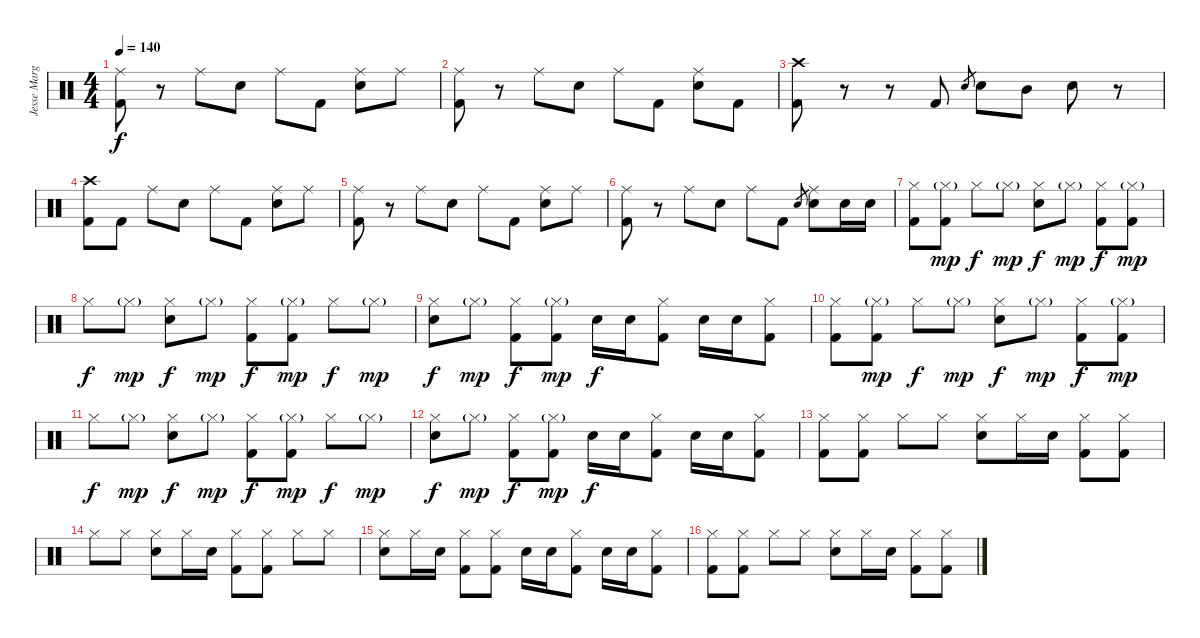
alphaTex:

\track ("Jesse Margera" "Jesse Marg") {instrument percussion}
\staff {score}
\articulation defaults
\ts (4 4)
\tempo 140
\clef neutral
\ks c
("Ride (middle)" "Kick (hit) 2").8{dy f} r.8 "Ride (middle)".8 "Electric Snare (hit)".8 "Ride (middle)".8 "Kick (hit) 2".8 ("Ride (middle)" "Electric Snare (hit)").8 "Ride (middle)".8 |
("Ride (middle)" "Kick (hit) 2").8 r.8 "Ride (middle)".8 "Electric Snare (hit)".8 "Ride (middle)".8 "Kick (hit) 2".8 ("Ride (middle)" "Electric Snare (hit)").8 "Kick (hit) 2".8 |
("Crash high (hit)" "Kick (hit) 2").8 r.8 r.8 "Kick (hit) 2".8 "Electric Snare (hit)".8{gr} "Electric Snare (hit)".8 "Mid Tom (hit)".8 "Electric Snare (hit)".8 r.8 |
("Crash high (hit)" "Kick (hit) 2").8 "Kick (hit) 2".8 "Ride (middle)".8 "Electric Snare (hit)".8 "Ride (middle)".8 "Kick (hit) 2".8 ("Ride (middle)" "Electric Snare (hit)").8 "Ride (middle)".8 |
("Ride (middle)" "Kick (hit) 2").8 r.8 "Ride (middle)".8 "Electric Snare (hit)".8 "Ride (middle)".8 "Kick (hit) 2".8 ("Ride (middle)" "Electric Snare (hit)").8 "Ride (middle)".8 |
("Ride (middle)" "Kick (hit) 2").8 r.8 "Ride (middle)".8 "Electric Snare (hit)".8 "Ride (middle)".8 "Kick (hit) 2".8 "Electric Snare (hit)".8{gr} ("Ride (middle)" "Electric Snare (hit)").8 "Electric Snare (hit)".16 "Electric Snare (hit)".16 |
("Hi-Hat (closed)" "Kick (hit) 2").8 ("Hi-Hat (closed)"{g} "Kick (hit) 2").8{dy mp} "Hi-Hat (closed)".8{dy f} "Hi-Hat (closed)"{g}.8{dy mp} ("Hi-Hat (closed)" "Electric Snare (hit)").8{dy f} "Hi-Hat (closed)"{g}.8{dy mp} ("Hi-Hat (closed)" "Kick (hit) 2").8{dy f} ("Hi-Hat (closed)"{g} "Kick (hit) 2").8{dy mp} |
"Hi-Hat (closed)".8{dy f} "Hi-Hat (closed)"{g}.8{dy mp} ("Hi-Hat (closed)" "Electric Snare (hit)").8{dy f} "Hi-Hat (closed)"{g}.8{dy mp} ("Hi-Hat (closed)" "Kick (hit) 2").8{dy f} ("Hi-Hat (closed)"{g} "Kick (hit) 2").8{dy mp} "Hi-Hat (closed)".8{dy f} "Hi-Hat (closed)"{g}.8{dy mp} |
("Hi-Hat (closed)" "Electric Snare (hit)").8{dy f} "Hi-Hat (closed)"{g}.8{dy mp} ("Hi-Hat (closed)" "Kick (hit) 2").8{dy f} ("Hi-Hat (closed)"{g} "Kick (hit) 2").8{dy mp} "Electric Snare (hit)".16{dy f} "Electric Snare (hit)".16 ("Hi-Hat (closed)" "Kick (hit) 2").8 "Electric Snare (hit)".16 "Electric Snare (hit)".16 ("Hi-Hat (closed)" "Kick (hit) 2").8 |
("Hi-Hat (closed)" "Kick (hit) 2").8 ("Hi-Hat (closed)"{g} "Kick (hit) 2").8{dy mp} "Hi-Hat (closed)".8{dy f} "Hi-Hat (closed)"{g}.8{dy mp} ("Hi-Hat (closed)" "Electric Snare (hit)").8{dy f} "Hi-Hat (closed)"{g}.8{dy mp} ("Hi-Hat (closed)" "Kick (hit) 2").8{dy f} ("Hi-Hat (closed)"{g} "Kick (hit) 2").8{dy mp} |
"Hi-Hat (closed)".8{dy f} "Hi-Hat (closed)"{g}.8{dy mp} ("Hi-Hat (closed)" "Electric Snare (hit)").8{dy f} "Hi-Hat (closed)"{g}.8{dy mp} ("Hi-Hat (closed)" "Kick (hit) 2").8{dy f} ("Hi-Hat (closed)"{g} "Kick (hit) 2").8{dy mp} "Hi-Hat (closed)".8{dy f} "Hi-Hat (closed)"{g}.8{dy mp} |
("Hi-Hat (closed)" "Electric Snare (hit)").8{dy f} "Hi-Hat (closed)"{g}.8{dy mp} ("Hi-Hat (closed)" "Kick (hit) 2").8{dy f} ("Hi-Hat (closed)"{g} "Kick (hit) 2").8{dy mp} "Electric Snare (hit)".16{dy f} "Electric Snare (hit)".16 ("Hi-Hat (closed)" "Kick (hit) 2").8 "Electric Snare (hit)".16 "Electric Snare (hit)".16 ("Hi-Hat (closed)" "Kick (hit) 2").8 |
("Hi-Hat (closed)" "Kick (hit) 2").8 ("Hi-Hat (closed)" "Kick (hit) 2").8 "Hi-Hat (closed)".8 "Hi-Hat (closed)".8 ("Hi-Hat (closed)" "Electric Snare (hit)").8 "Hi-Hat (closed)".16 "Electric Snare (hit)".16 ("Hi-Hat (closed)" "Kick (hit) 2").8 ("Hi-Hat (closed)" "Kick (hit) 2").8 |
"Hi-Hat (closed)".8 "Hi-Hat (closed)".8 ("Hi-Hat (closed)" "Electric Snare (hit)").8 "Hi-Hat (closed)".16 "Electric Snare (hit)".16 ("Hi-Hat (closed)" "Kick (hit) 2").8 ("Hi-Hat (closed)" "Kick (hit) 2").8 "Hi-Hat (closed)".8 "Hi-Hat (closed)".8 |
("Hi-Hat (closed)" "Electric Snare (hit)").8 "Hi-Hat (closed)".16 "Electric Snare (hit)".16 ("Hi-Hat (closed)" "Kick (hit) 2").8 ("Hi-Hat (closed)" "Kick (hit) 2").8 "Electric Snare (hit)".16 "Electric Snare (hit)".16 ("Hi-Hat (closed)" "Kick (hit) 2").8 "Electric Snare (hit)".16 "Electric Snare (hit)".16 ("Hi-Hat (closed)" "Kick (hit) 2").8 |
("Hi-Hat (closed)" "Kick (hit) 2").8 ("Hi-Hat (closed)" "Kick (hit) 2").8 "Hi-Hat (closed)".8 "Hi-Hat (closed)".8 ("Hi-Hat (closed)" "Electric Snare (hit)").8 "Hi-Hat (closed)".16 "Electric Snare (hit)".16 ("Hi-Hat (closed)" "Kick (hit) 2").8 ("Hi-Hat (closed)" "Kick (hit) 2").8
